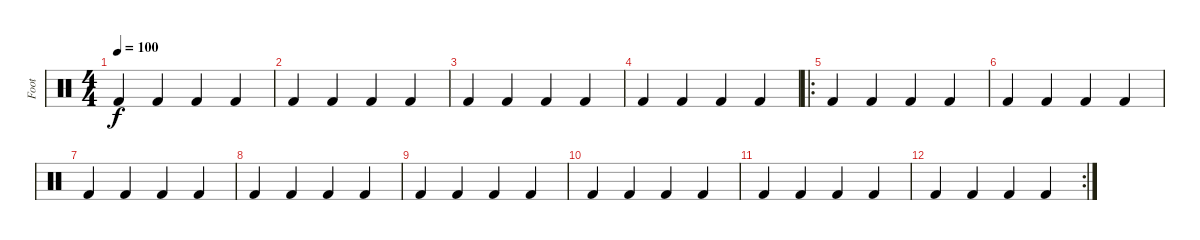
\track ("Foot" "Foot") {instrument percussion}
\staff {score}
\articulation defaults
\ts (4 4)
\tempo 100
\clef neutral
\ks c "Kick (hit) 2".4{dy f} "Kick (hit) 2".4 "Kick (hit) 2".4 "Kick (hit) 2".4
|
"Kick (hit) 2".4 "Kick (hit) 2".4 "Kick (hit) 2".4 "Kick (hit) 2".4 |
"Kick (hit) 2".4 "Kick (hit) 2".4 "Kick (hit) 2".4 "Kick (hit) 2".4 |
"Kick (hit) 2".4 "Kick (hit) 2".4 "Kick (hit) 2".4 "Kick (hit) 2".4 |
\ro "Kick (hit) 2".4 "Kick (hit) 2".4 "Kick (hit) 2".4 "Kick (hit) 2".4
|
"Kick (hit) 2".4 "Kick (hit) 2".4 "Kick (hit) 2".4 "Kick (hit) 2".4 |
"Kick (hit) 2".4 "Kick (hit) 2".4 "Kick (hit) 2".4 "Kick (hit) 2".4 |
"Kick (hit) 2".4 "Kick (hit) 2".4 "Kick (hit) 2".4 "Kick (hit) 2".4 |
"Kick (hit) 2".4 "Kick (hit) 2".4 "Kick (hit) 2".4 "Kick (hit) 2".4 |
"Kick (hit) 2".4 "Kick (hit) 2".4 "Kick (hit) 2".4 "Kick (hit) 2".4 |
"Kick (hit) 2".4 "Kick (hit) 2".4 "Kick (hit) 2".4 "Kick (hit) 2".4 |
\rc 2 "Kick (hit) 2".4 "Kick (hit) 2".4 "Kick (hit) 2".4 "Kick (hit) 2".4
